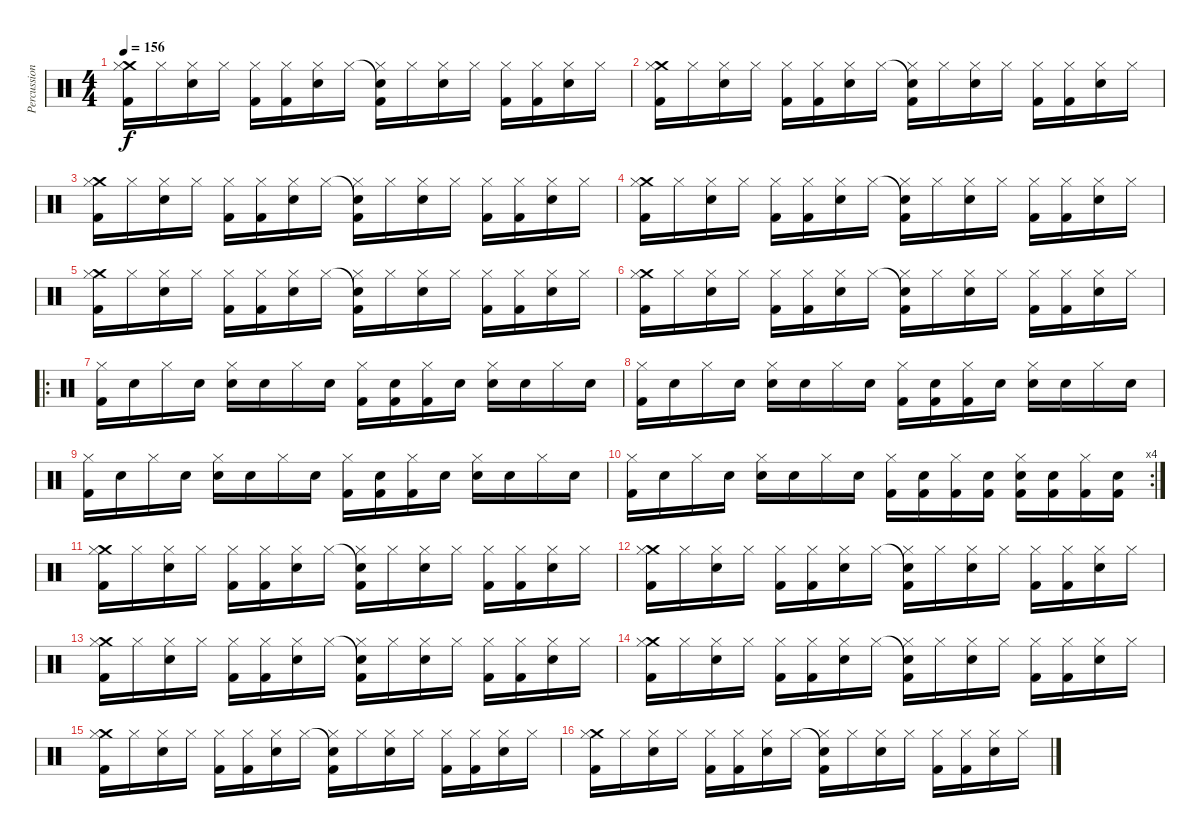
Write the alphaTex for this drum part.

\track ("Percussion" "Percussion") {instrument percussion}
\staff {score}
\articulation defaults
\ts (4 4)
\tempo 156
\clef neutral
\ks c
("Crash medium (hit)" "Hi-Hat (closed)" "Kick (hit) 2").16{dy f} "Hi-Hat (closed)".16 ("Hi-Hat (closed)" "Electric Snare (hit)").16 "Hi-Hat (closed)".16 ("Hi-Hat (closed)" "Kick (hit) 2").16 ("Hi-Hat (closed)" "Kick (hit) 2").16 ("Hi-Hat (closed)" "Electric Snare (hit)").16 "Hi-Hat (closed)".16 ("Snare (hit)"{t} "Hi-Hat (closed)" "Kick (hit) 2").16 "Hi-Hat (closed)".16 ("Hi-Hat (closed)" "Electric Snare (hit)").16 "Hi-Hat (closed)".16 ("Hi-Hat (closed)" "Kick (hit) 2").16 ("Hi-Hat (closed)" "Kick (hit) 2").16 ("Hi-Hat (closed)" "Electric Snare (hit)").16 "Hi-Hat (closed)".16 |
("Crash medium (hit)" "Hi-Hat (closed)" "Kick (hit) 2").16 "Hi-Hat (closed)".16 ("Hi-Hat (closed)" "Electric Snare (hit)").16 "Hi-Hat (closed)".16 ("Hi-Hat (closed)" "Kick (hit) 2").16 ("Hi-Hat (closed)" "Kick (hit) 2").16 ("Hi-Hat (closed)" "Electric Snare (hit)").16 "Hi-Hat (closed)".16 ("Snare (hit)"{t} "Hi-Hat (closed)" "Kick (hit) 2").16 "Hi-Hat (closed)".16 ("Hi-Hat (closed)" "Electric Snare (hit)").16 "Hi-Hat (closed)".16 ("Hi-Hat (closed)" "Kick (hit) 2").16 ("Hi-Hat (closed)" "Kick (hit) 2").16 ("Hi-Hat (closed)" "Electric Snare (hit)").16 "Hi-Hat (closed)".16 |
("Crash medium (hit)" "Hi-Hat (closed)" "Kick (hit) 2").16 "Hi-Hat (closed)".16 ("Hi-Hat (closed)" "Electric Snare (hit)").16 "Hi-Hat (closed)".16 ("Hi-Hat (closed)" "Kick (hit) 2").16 ("Hi-Hat (closed)" "Kick (hit) 2").16 ("Hi-Hat (closed)" "Electric Snare (hit)").16 "Hi-Hat (closed)".16 ("Snare (hit)"{t} "Hi-Hat (closed)" "Kick (hit) 2").16 "Hi-Hat (closed)".16 ("Hi-Hat (closed)" "Electric Snare (hit)").16 "Hi-Hat (closed)".16 ("Hi-Hat (closed)" "Kick (hit) 2").16 ("Hi-Hat (closed)" "Kick (hit) 2").16 ("Hi-Hat (closed)" "Electric Snare (hit)").16 "Hi-Hat (closed)".16 |
("Crash medium (hit)" "Hi-Hat (closed)" "Kick (hit) 2").16 "Hi-Hat (closed)".16 ("Hi-Hat (closed)" "Electric Snare (hit)").16 "Hi-Hat (closed)".16 ("Hi-Hat (closed)" "Kick (hit) 2").16 ("Hi-Hat (closed)" "Kick (hit) 2").16 ("Hi-Hat (closed)" "Electric Snare (hit)").16 "Hi-Hat (closed)".16 ("Snare (hit)"{t} "Hi-Hat (closed)" "Kick (hit) 2").16 "Hi-Hat (closed)".16 ("Hi-Hat (closed)" "Electric Snare (hit)").16 "Hi-Hat (closed)".16 ("Hi-Hat (closed)" "Kick (hit) 2").16 ("Hi-Hat (closed)" "Kick (hit) 2").16 ("Hi-Hat (closed)" "Electric Snare (hit)").16 "Hi-Hat (closed)".16 |
("Crash medium (hit)" "Hi-Hat (closed)" "Kick (hit) 2").16 "Hi-Hat (closed)".16 ("Hi-Hat (closed)" "Electric Snare (hit)").16 "Hi-Hat (closed)".16 ("Hi-Hat (closed)" "Kick (hit) 2").16 ("Hi-Hat (closed)" "Kick (hit) 2").16 ("Hi-Hat (closed)" "Electric Snare (hit)").16 "Hi-Hat (closed)".16 ("Snare (hit)"{t} "Hi-Hat (closed)" "Kick (hit) 2").16 "Hi-Hat (closed)".16 ("Hi-Hat (closed)" "Electric Snare (hit)").16 "Hi-Hat (closed)".16 ("Hi-Hat (closed)" "Kick (hit) 2").16 ("Hi-Hat (closed)" "Kick (hit) 2").16 ("Hi-Hat (closed)" "Electric Snare (hit)").16 "Hi-Hat (closed)".16 |
("Crash medium (hit)" "Hi-Hat (closed)" "Kick (hit) 2").16 "Hi-Hat (closed)".16 ("Hi-Hat (closed)" "Electric Snare (hit)").16 "Hi-Hat (closed)".16 ("Hi-Hat (closed)" "Kick (hit) 2").16 ("Hi-Hat (closed)" "Kick (hit) 2").16 ("Hi-Hat (closed)" "Electric Snare (hit)").16 "Hi-Hat (closed)".16 ("Snare (hit)"{t} "Hi-Hat (closed)" "Kick (hit) 2").16 "Hi-Hat (closed)".16 ("Hi-Hat (closed)" "Electric Snare (hit)").16 "Hi-Hat (closed)".16 ("Hi-Hat (closed)" "Kick (hit) 2").16 ("Hi-Hat (closed)" "Kick (hit) 2").16 ("Hi-Hat (closed)" "Electric Snare (hit)").16 "Hi-Hat (closed)".16 |
\ro
("Hi-Hat (closed)" "Kick (hit) 2").16 "Snare (hit)".16 "Hi-Hat (closed)".16 "Snare (hit)".16 ("Hi-Hat (closed)" "Snare (hit) 2").16 "Snare (hit)".16 "Hi-Hat (closed)".16 "Snare (hit)".16 ("Hi-Hat (closed)" "Kick (hit) 2").16 ("Snare (hit)" "Kick (hit) 2").16 ("Hi-Hat (closed)" "Kick (hit) 2").16 "Snare (hit)".16 ("Hi-Hat (closed)" "Snare (hit) 2").16 "Snare (hit)".16 "Hi-Hat (closed)".16 "Snare (hit)".16 |
("Hi-Hat (closed)" "Kick (hit) 2").16 "Snare (hit)".16 "Hi-Hat (closed)".16 "Snare (hit)".16 ("Hi-Hat (closed)" "Snare (hit) 2").16 "Snare (hit)".16 "Hi-Hat (closed)".16 "Snare (hit)".16 ("Hi-Hat (closed)" "Kick (hit) 2").16 ("Snare (hit)" "Kick (hit) 2").16 ("Hi-Hat (closed)" "Kick (hit) 2").16 "Snare (hit)".16 ("Hi-Hat (closed)" "Snare (hit) 2").16 "Snare (hit)".16 "Hi-Hat (closed)".16 "Snare (hit)".16 |
("Hi-Hat (closed)" "Kick (hit) 2").16 "Snare (hit)".16 "Hi-Hat (closed)".16 "Snare (hit)".16 ("Hi-Hat (closed)" "Snare (hit) 2").16 "Snare (hit)".16 "Hi-Hat (closed)".16 "Snare (hit)".16 ("Hi-Hat (closed)" "Kick (hit) 2").16 ("Snare (hit)" "Kick (hit) 2").16 ("Hi-Hat (closed)" "Kick (hit) 2").16 "Snare (hit)".16 ("Hi-Hat (closed)" "Snare (hit) 2").16 "Snare (hit)".16 "Hi-Hat (closed)".16 "Snare (hit)".16 |
\rc 4
("Hi-Hat (closed)" "Kick (hit) 2").16 "Snare (hit)".16 "Hi-Hat (closed)".16 "Snare (hit)".16 ("Hi-Hat (closed)" "Snare (hit) 2").16 "Snare (hit)".16 "Hi-Hat (closed)".16 "Snare (hit)".16 ("Hi-Hat (closed)" "Kick (hit) 2").16 ("Snare (hit)" "Kick (hit) 2").16 ("Hi-Hat (closed)" "Kick (hit) 2").16 ("Snare (hit)" "Kick (hit) 2").16 ("Hi-Hat (closed)" "Snare (hit) 2" "Kick (hit) 2").16 ("Snare (hit)" "Kick (hit) 2").16 ("Hi-Hat (closed)" "Kick (hit) 2").16 ("Snare (hit)" "Kick (hit) 2").16 |
("Crash medium (hit)" "Hi-Hat (closed)" "Kick (hit) 2").16 "Hi-Hat (closed)".16 ("Hi-Hat (closed)" "Electric Snare (hit)").16 "Hi-Hat (closed)".16 ("Hi-Hat (closed)" "Kick (hit) 2").16 ("Hi-Hat (closed)" "Kick (hit) 2").16 ("Hi-Hat (closed)" "Electric Snare (hit)").16 "Hi-Hat (closed)".16 ("Snare (hit)"{t} "Hi-Hat (closed)" "Kick (hit) 2").16 "Hi-Hat (closed)".16 ("Hi-Hat (closed)" "Electric Snare (hit)").16 "Hi-Hat (closed)".16 ("Hi-Hat (closed)" "Kick (hit) 2").16 ("Hi-Hat (closed)" "Kick (hit) 2").16 ("Hi-Hat (closed)" "Electric Snare (hit)").16 "Hi-Hat (closed)".16 |
("Crash medium (hit)" "Hi-Hat (closed)" "Kick (hit) 2").16 "Hi-Hat (closed)".16 ("Hi-Hat (closed)" "Electric Snare (hit)").16 "Hi-Hat (closed)".16 ("Hi-Hat (closed)" "Kick (hit) 2").16 ("Hi-Hat (closed)" "Kick (hit) 2").16 ("Hi-Hat (closed)" "Electric Snare (hit)").16 "Hi-Hat (closed)".16 ("Snare (hit)"{t} "Hi-Hat (closed)" "Kick (hit) 2").16 "Hi-Hat (closed)".16 ("Hi-Hat (closed)" "Electric Snare (hit)").16 "Hi-Hat (closed)".16 ("Hi-Hat (closed)" "Kick (hit) 2").16 ("Hi-Hat (closed)" "Kick (hit) 2").16 ("Hi-Hat (closed)" "Electric Snare (hit)").16 "Hi-Hat (closed)".16 |
("Crash medium (hit)" "Hi-Hat (closed)" "Kick (hit) 2").16 "Hi-Hat (closed)".16 ("Hi-Hat (closed)" "Electric Snare (hit)").16 "Hi-Hat (closed)".16 ("Hi-Hat (closed)" "Kick (hit) 2").16 ("Hi-Hat (closed)" "Kick (hit) 2").16 ("Hi-Hat (closed)" "Electric Snare (hit)").16 "Hi-Hat (closed)".16 ("Snare (hit)"{t} "Hi-Hat (closed)" "Kick (hit) 2").16 "Hi-Hat (closed)".16 ("Hi-Hat (closed)" "Electric Snare (hit)").16 "Hi-Hat (closed)".16 ("Hi-Hat (closed)" "Kick (hit) 2").16 ("Hi-Hat (closed)" "Kick (hit) 2").16 ("Hi-Hat (closed)" "Electric Snare (hit)").16 "Hi-Hat (closed)".16 |
("Crash medium (hit)" "Hi-Hat (closed)" "Kick (hit) 2").16 "Hi-Hat (closed)".16 ("Hi-Hat (closed)" "Electric Snare (hit)").16 "Hi-Hat (closed)".16 ("Hi-Hat (closed)" "Kick (hit) 2").16 ("Hi-Hat (closed)" "Kick (hit) 2").16 ("Hi-Hat (closed)" "Electric Snare (hit)").16 "Hi-Hat (closed)".16 ("Snare (hit)"{t} "Hi-Hat (closed)" "Kick (hit) 2").16 "Hi-Hat (closed)".16 ("Hi-Hat (closed)" "Electric Snare (hit)").16 "Hi-Hat (closed)".16 ("Hi-Hat (closed)" "Kick (hit) 2").16 ("Hi-Hat (closed)" "Kick (hit) 2").16 ("Hi-Hat (closed)" "Electric Snare (hit)").16 "Hi-Hat (closed)".16 |
("Crash medium (hit)" "Hi-Hat (closed)" "Kick (hit) 2").16 "Hi-Hat (closed)".16 ("Hi-Hat (closed)" "Electric Snare (hit)").16 "Hi-Hat (closed)".16 ("Hi-Hat (closed)" "Kick (hit) 2").16 ("Hi-Hat (closed)" "Kick (hit) 2").16 ("Hi-Hat (closed)" "Electric Snare (hit)").16 "Hi-Hat (closed)".16 ("Snare (hit)"{t} "Hi-Hat (closed)" "Kick (hit) 2").16 "Hi-Hat (closed)".16 ("Hi-Hat (closed)" "Electric Snare (hit)").16 "Hi-Hat (closed)".16 ("Hi-Hat (closed)" "Kick (hit) 2").16 ("Hi-Hat (closed)" "Kick (hit) 2").16 ("Hi-Hat (closed)" "Electric Snare (hit)").16 "Hi-Hat (closed)".16 |
("Crash medium (hit)" "Hi-Hat (closed)" "Kick (hit) 2").16 "Hi-Hat (closed)".16 ("Hi-Hat (closed)" "Electric Snare (hit)").16 "Hi-Hat (closed)".16 ("Hi-Hat (closed)" "Kick (hit) 2").16 ("Hi-Hat (closed)" "Kick (hit) 2").16 ("Hi-Hat (closed)" "Electric Snare (hit)").16 "Hi-Hat (closed)".16 ("Snare (hit)"{t} "Hi-Hat (closed)" "Kick (hit) 2").16 "Hi-Hat (closed)".16 ("Hi-Hat (closed)" "Electric Snare (hit)").16 "Hi-Hat (closed)".16 ("Hi-Hat (closed)" "Kick (hit) 2").16 ("Hi-Hat (closed)" "Kick (hit) 2").16 ("Hi-Hat (closed)" "Electric Snare (hit)").16 "Hi-Hat (closed)".16
